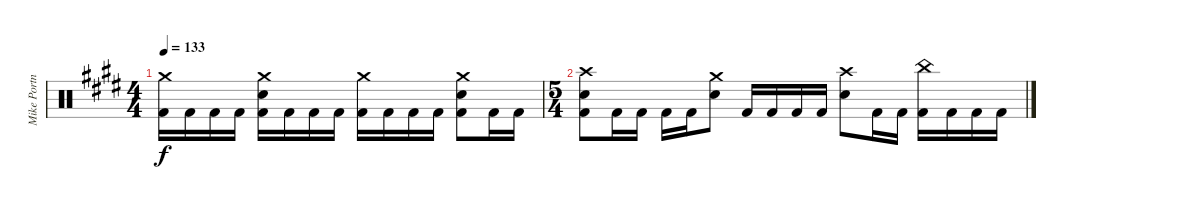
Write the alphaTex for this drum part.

\track ("Mike Portnoy" "Mike Portn") {instrument percussion}
\staff {score}
\articulation defaults
\ts (4 4)
\tempo 133
\clef neutral
\ks e
("Crash medium (hit)" "Kick (hit) 2").16{dy f} "Kick (hit) 2".16 "Kick (hit) 2".16 "Kick (hit) 2".16 ("Crash medium (hit)" "Snare (hit) 2" "Kick (hit) 2").16 "Kick (hit) 2".16 "Kick (hit) 2".16 "Kick (hit) 2".16 ("Crash medium (hit)" "Kick (hit) 2").16 "Kick (hit) 2".16 "Kick (hit) 2".16 "Kick (hit) 2".16 ("Crash medium (hit)" "Snare (hit) 2" "Kick (hit) 2").8 "Kick (hit) 2".16 "Kick (hit) 2".16 |
\ts (5 4)
("Crash high (hit)" "Snare (hit) 2" "Kick (hit) 2").8 "Kick (hit) 2".16 "Kick (hit) 2".16 "Kick (hit) 2".16 "Kick (hit) 2".16 ("Crash medium (hit)" "Snare (hit) 2").8 "Kick (hit) 2".16 "Kick (hit) 2".16 "Kick (hit) 2".16 "Kick (hit) 2".16 ("Crash high (hit)" "Snare (hit) 2").8 "Kick (hit) 2".16 "Kick (hit) 2".16 ("China (hit)" "Kick (hit) 2").16 "Kick (hit) 2".16 "Kick (hit) 2".16 "Kick (hit) 2".16
